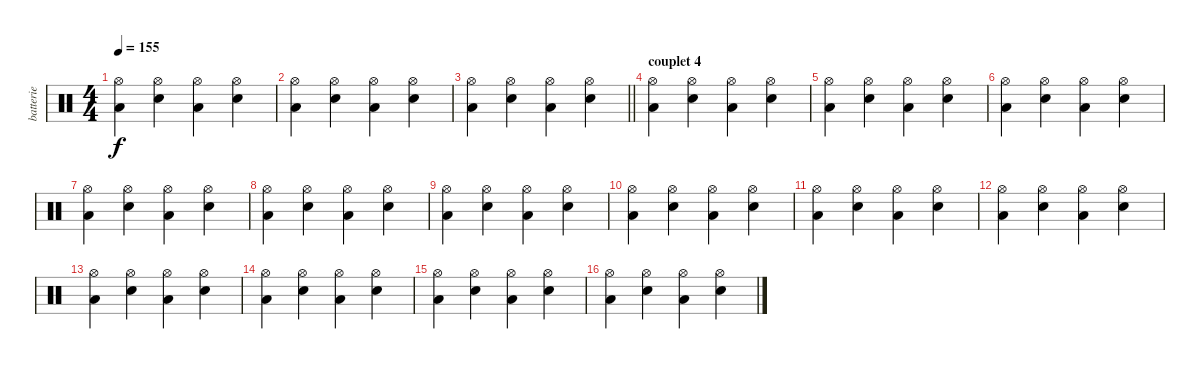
\track ("batterie" "batterie") {instrument percussion}
\staff {score}
\articulation defaults
\ts (4 4)
\tempo 155
\clef neutral
\ks c
("Hi-Hat (open)" "Low Floor Tom (hit)").4{dy f} ("Hi-Hat (open)" "Electric Snare (hit)").4 ("Hi-Hat (open)" "Low Floor Tom (hit)").4 ("Hi-Hat (open)" "Electric Snare (hit)").4 |
("Hi-Hat (open)" "Low Floor Tom (hit)").4 ("Hi-Hat (open)" "Electric Snare (hit)").4 ("Hi-Hat (open)" "Low Floor Tom (hit)").4 ("Hi-Hat (open)" "Electric Snare (hit)").4 |
\barLineRight lightlight
("Hi-Hat (open)" "Low Floor Tom (hit)").4 ("Hi-Hat (open)" "Electric Snare (hit)").4 ("Hi-Hat (open)" "Low Floor Tom (hit)").4 ("Hi-Hat (open)" "Electric Snare (hit)").4 |
\section ("" "couplet 4")
("Hi-Hat (open)" "Low Floor Tom (hit)").4 ("Hi-Hat (open)" "Electric Snare (hit)").4 ("Hi-Hat (open)" "Low Floor Tom (hit)").4 ("Hi-Hat (open)" "Electric Snare (hit)").4 |
("Hi-Hat (open)" "Low Floor Tom (hit)").4 ("Hi-Hat (open)" "Electric Snare (hit)").4 ("Hi-Hat (open)" "Low Floor Tom (hit)").4 ("Hi-Hat (open)" "Electric Snare (hit)").4 |
("Hi-Hat (open)" "Low Floor Tom (hit)").4 ("Hi-Hat (open)" "Electric Snare (hit)").4 ("Hi-Hat (open)" "Low Floor Tom (hit)").4 ("Hi-Hat (open)" "Electric Snare (hit)").4 |
("Hi-Hat (open)" "Low Floor Tom (hit)").4 ("Hi-Hat (open)" "Electric Snare (hit)").4 ("Hi-Hat (open)" "Low Floor Tom (hit)").4 ("Hi-Hat (open)" "Electric Snare (hit)").4 |
("Hi-Hat (open)" "Low Floor Tom (hit)").4 ("Hi-Hat (open)" "Electric Snare (hit)").4 ("Hi-Hat (open)" "Low Floor Tom (hit)").4 ("Hi-Hat (open)" "Electric Snare (hit)").4 |
("Hi-Hat (open)" "Low Floor Tom (hit)").4 ("Hi-Hat (open)" "Electric Snare (hit)").4 ("Hi-Hat (open)" "Low Floor Tom (hit)").4 ("Hi-Hat (open)" "Electric Snare (hit)").4 |
("Hi-Hat (open)" "Low Floor Tom (hit)").4 ("Hi-Hat (open)" "Electric Snare (hit)").4 ("Hi-Hat (open)" "Low Floor Tom (hit)").4 ("Hi-Hat (open)" "Electric Snare (hit)").4 |
("Hi-Hat (open)" "Low Floor Tom (hit)").4 ("Hi-Hat (open)" "Electric Snare (hit)").4 ("Hi-Hat (open)" "Low Floor Tom (hit)").4 ("Hi-Hat (open)" "Electric Snare (hit)").4 |
("Hi-Hat (open)" "Low Floor Tom (hit)").4 ("Hi-Hat (open)" "Electric Snare (hit)").4 ("Hi-Hat (open)" "Low Floor Tom (hit)").4 ("Hi-Hat (open)" "Electric Snare (hit)").4 |
("Hi-Hat (open)" "Low Floor Tom (hit)").4 ("Hi-Hat (open)" "Electric Snare (hit)").4 ("Hi-Hat (open)" "Low Floor Tom (hit)").4 ("Hi-Hat (open)" "Electric Snare (hit)").4 |
("Hi-Hat (open)" "Low Floor Tom (hit)").4 ("Hi-Hat (open)" "Electric Snare (hit)").4 ("Hi-Hat (open)" "Low Floor Tom (hit)").4 ("Hi-Hat (open)" "Electric Snare (hit)").4 |
("Hi-Hat (open)" "Low Floor Tom (hit)").4 ("Hi-Hat (open)" "Electric Snare (hit)").4 ("Hi-Hat (open)" "Low Floor Tom (hit)").4 ("Hi-Hat (open)" "Electric Snare (hit)").4 |
("Hi-Hat (open)" "Low Floor Tom (hit)").4 ("Hi-Hat (open)" "Electric Snare (hit)").4 ("Hi-Hat (open)" "Low Floor Tom (hit)").4 ("Hi-Hat (open)" "Electric Snare (hit)").4
